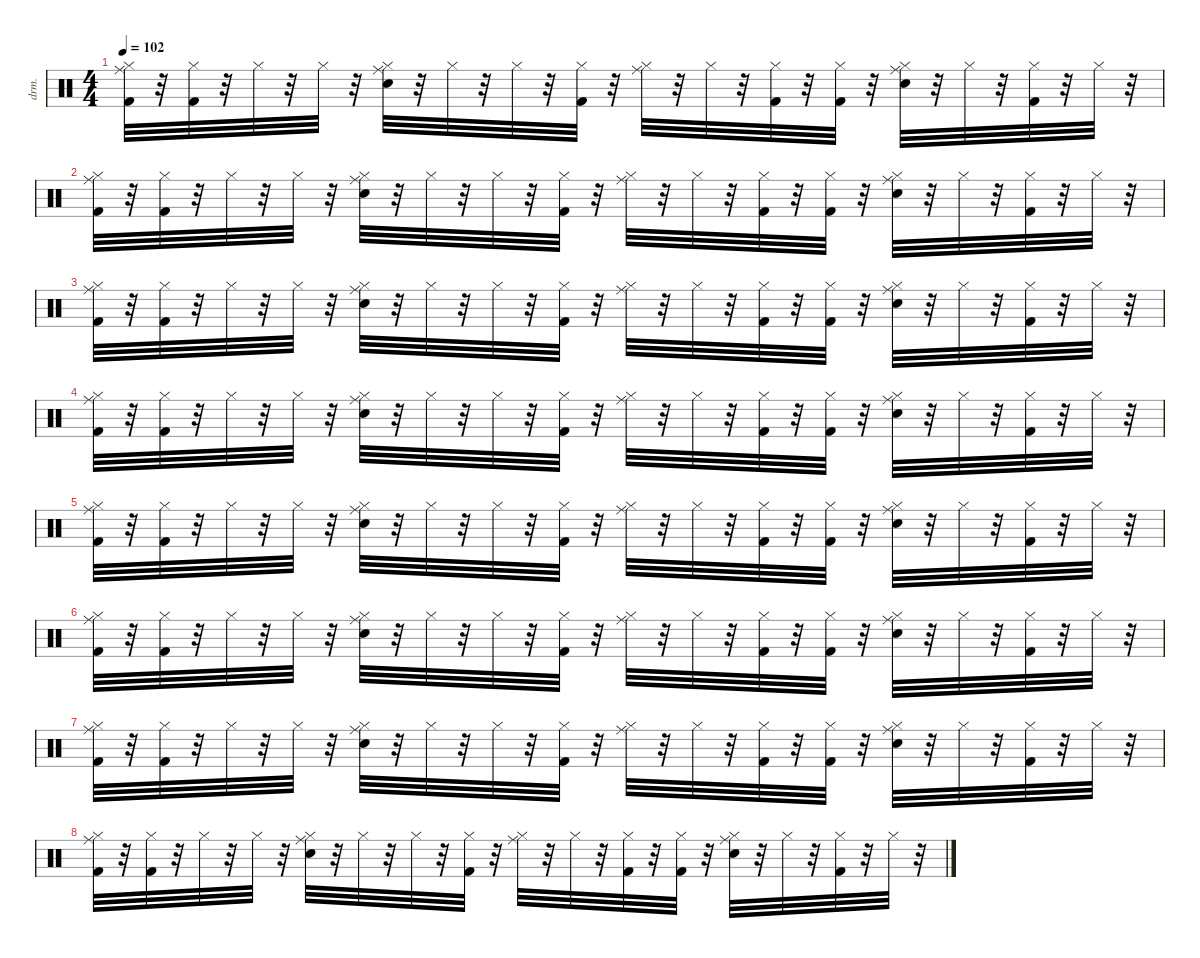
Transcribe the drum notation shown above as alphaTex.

\defaultSystemsLayout 4
\hideDynamics
\bracketExtendMode nobrackets
\otherSystemsTrackNameOrientation horizontal
\track ("Nick Mason / Gary Wallis" "drm.") {instrument percussion}
\staff {score}
\articulation defaults
\ts (4 4)
\tempo 102
\clef neutral
\ks c
("Kick (hit) 2" "Hi-Hat (closed)" "Ride (middle)").32{dy ff beam Down} r.32{beam Down} ("Hi-Hat (closed)" "Kick (hit) 2").32{dy pp beam Down} r.32{beam Down} "Hi-Hat (closed)".32{dy ppp beam Down} r.32{beam Down} "Hi-Hat (closed)".32{dy p beam Down} r.32{beam Down} ("Snare (hit) 2" "Hi-Hat (closed)" "Ride (middle)").32{beam Down} r.32{beam Down} "Hi-Hat (closed)".32{dy ppp beam Down} r.32{beam Down} "Hi-Hat (closed)".32{dy mp beam Down} r.32{beam Down} ("Hi-Hat (closed)" "Kick (hit) 2").32{dy ppp beam Down} r.32{beam Down} ("Hi-Hat (closed)" "Ride (middle)").32{dy mf beam Down} r.32{beam Down} "Hi-Hat (closed)".32{dy pp beam Down} r.32{beam Down} ("Hi-Hat (closed)" "Kick (hit) 2").32{dy ppp beam Down} r.32{beam Down} ("Hi-Hat (closed)" "Kick (hit) 2").32{dy p beam Down} r.32{beam Down} ("Snare (hit) 2" "Hi-Hat (closed)" "Ride (middle)").32{beam Down} r.32{beam Down} "Hi-Hat (closed)".32{dy ppp beam Down} r.32{beam Down} ("Kick (hit) 2" "Hi-Hat (closed)").32{dy f beam Down} r.32{beam Down} "Hi-Hat (closed)".32{dy p beam Down} r.32{beam Down} |
("Kick (hit) 2" "Hi-Hat (closed)" "Ride (middle)").32{dy ff beam Down} r.32{beam Down} ("Hi-Hat (closed)" "Kick (hit) 2").32{dy pp beam Down} r.32{beam Down} "Hi-Hat (closed)".32{dy ppp beam Down} r.32{beam Down} "Hi-Hat (closed)".32{dy p beam Down} r.32{beam Down} ("Snare (hit) 2" "Hi-Hat (closed)" "Ride (middle)").32{beam Down} r.32{beam Down} "Hi-Hat (closed)".32{dy ppp beam Down} r.32{beam Down} "Hi-Hat (closed)".32{dy mp beam Down} r.32{beam Down} ("Hi-Hat (closed)" "Kick (hit) 2").32{dy ppp beam Down} r.32{beam Down} ("Hi-Hat (closed)" "Ride (middle)").32{dy mf beam Down} r.32{beam Down} "Hi-Hat (closed)".32{dy pp beam Down} r.32{beam Down} ("Hi-Hat (closed)" "Kick (hit) 2").32{dy ppp beam Down} r.32{beam Down} ("Hi-Hat (closed)" "Kick (hit) 2").32{dy p beam Down} r.32{beam Down} ("Snare (hit) 2" "Hi-Hat (closed)" "Ride (middle)").32{beam Down} r.32{beam Down} "Hi-Hat (closed)".32{dy ppp beam Down} r.32{beam Down} ("Kick (hit) 2" "Hi-Hat (closed)").32{dy f beam Down} r.32{beam Down} "Hi-Hat (closed)".32{dy p beam Down} r.32{beam Down} |
("Kick (hit) 2" "Hi-Hat (closed)" "Ride (middle)").32{dy ff beam Down} r.32{beam Down} ("Hi-Hat (closed)" "Kick (hit) 2").32{dy pp beam Down} r.32{beam Down} "Hi-Hat (closed)".32{dy ppp beam Down} r.32{beam Down} "Hi-Hat (closed)".32{dy p beam Down} r.32{beam Down} ("Snare (hit) 2" "Hi-Hat (closed)" "Ride (middle)").32{beam Down} r.32{beam Down} "Hi-Hat (closed)".32{dy ppp beam Down} r.32{beam Down} "Hi-Hat (closed)".32{dy mp beam Down} r.32{beam Down} ("Hi-Hat (closed)" "Kick (hit) 2").32{dy ppp beam Down} r.32{beam Down} ("Hi-Hat (closed)" "Ride (middle)").32{dy mf beam Down} r.32{beam Down} "Hi-Hat (closed)".32{dy pp beam Down} r.32{beam Down} ("Hi-Hat (closed)" "Kick (hit) 2").32{dy ppp beam Down} r.32{beam Down} ("Hi-Hat (closed)" "Kick (hit) 2").32{dy p beam Down} r.32{beam Down} ("Snare (hit) 2" "Hi-Hat (closed)" "Ride (middle)").32{beam Down} r.32{beam Down} "Hi-Hat (closed)".32{dy ppp beam Down} r.32{beam Down} ("Kick (hit) 2" "Hi-Hat (closed)").32{dy f beam Down} r.32{beam Down} "Hi-Hat (closed)".32{dy p beam Down} r.32{beam Down} |
("Kick (hit) 2" "Hi-Hat (closed)" "Ride (middle)").32{dy ff beam Down} r.32{beam Down} ("Hi-Hat (closed)" "Kick (hit) 2").32{dy pp beam Down} r.32{beam Down} "Hi-Hat (closed)".32{dy ppp beam Down} r.32{beam Down} "Hi-Hat (closed)".32{dy p beam Down} r.32{beam Down} ("Snare (hit) 2" "Hi-Hat (closed)" "Ride (middle)").32{beam Down} r.32{beam Down} "Hi-Hat (closed)".32{dy ppp beam Down} r.32{beam Down} "Hi-Hat (closed)".32{dy mp beam Down} r.32{beam Down} ("Hi-Hat (closed)" "Kick (hit) 2").32{dy ppp beam Down} r.32{beam Down} ("Hi-Hat (closed)" "Ride (middle)").32{dy mf beam Down} r.32{beam Down} "Hi-Hat (closed)".32{dy pp beam Down} r.32{beam Down} ("Hi-Hat (closed)" "Kick (hit) 2").32{dy ppp beam Down} r.32{beam Down} ("Hi-Hat (closed)" "Kick (hit) 2").32{dy p beam Down} r.32{beam Down} ("Snare (hit) 2" "Hi-Hat (closed)" "Ride (middle)").32{beam Down} r.32{beam Down} "Hi-Hat (closed)".32{dy ppp beam Down} r.32{beam Down} ("Kick (hit) 2" "Hi-Hat (closed)").32{dy f beam Down} r.32{beam Down} "Hi-Hat (closed)".32{dy p beam Down} r.32{beam Down} |
("Kick (hit) 2" "Hi-Hat (closed)" "Ride (middle)").32{dy ff beam Down} r.32{beam Down} ("Hi-Hat (closed)" "Kick (hit) 2").32{dy pp beam Down} r.32{beam Down} "Hi-Hat (closed)".32{dy ppp beam Down} r.32{beam Down} "Hi-Hat (closed)".32{dy p beam Down} r.32{beam Down} ("Snare (hit) 2" "Hi-Hat (closed)" "Ride (middle)").32{beam Down} r.32{beam Down} "Hi-Hat (closed)".32{dy ppp beam Down} r.32{beam Down} "Hi-Hat (closed)".32{dy mp beam Down} r.32{beam Down} ("Hi-Hat (closed)" "Kick (hit) 2").32{dy ppp beam Down} r.32{beam Down} ("Hi-Hat (closed)" "Ride (middle)").32{dy mf beam Down} r.32{beam Down} "Hi-Hat (closed)".32{dy pp beam Down} r.32{beam Down} ("Hi-Hat (closed)" "Kick (hit) 2").32{dy ppp beam Down} r.32{beam Down} ("Hi-Hat (closed)" "Kick (hit) 2").32{dy p beam Down} r.32{beam Down} ("Snare (hit) 2" "Hi-Hat (closed)" "Ride (middle)").32{beam Down} r.32{beam Down} "Hi-Hat (closed)".32{dy ppp beam Down} r.32{beam Down} ("Kick (hit) 2" "Hi-Hat (closed)").32{dy f beam Down} r.32{beam Down} "Hi-Hat (closed)".32{dy p beam Down} r.32{beam Down} |
("Kick (hit) 2" "Hi-Hat (closed)" "Ride (middle)").32{dy ff beam Down} r.32{beam Down} ("Hi-Hat (closed)" "Kick (hit) 2").32{dy pp beam Down} r.32{beam Down} "Hi-Hat (closed)".32{dy ppp beam Down} r.32{beam Down} "Hi-Hat (closed)".32{dy p beam Down} r.32{beam Down} ("Snare (hit) 2" "Hi-Hat (closed)" "Ride (middle)").32{beam Down} r.32{beam Down} "Hi-Hat (closed)".32{dy ppp beam Down} r.32{beam Down} "Hi-Hat (closed)".32{dy mp beam Down} r.32{beam Down} ("Hi-Hat (closed)" "Kick (hit) 2").32{dy ppp beam Down} r.32{beam Down} ("Hi-Hat (closed)" "Ride (middle)").32{dy mf beam Down} r.32{beam Down} "Hi-Hat (closed)".32{dy pp beam Down} r.32{beam Down} ("Hi-Hat (closed)" "Kick (hit) 2").32{dy ppp beam Down} r.32{beam Down} ("Hi-Hat (closed)" "Kick (hit) 2").32{dy p beam Down} r.32{beam Down} ("Snare (hit) 2" "Hi-Hat (closed)" "Ride (middle)").32{beam Down} r.32{beam Down} "Hi-Hat (closed)".32{dy ppp beam Down} r.32{beam Down} ("Kick (hit) 2" "Hi-Hat (closed)").32{dy f beam Down} r.32{beam Down} "Hi-Hat (closed)".32{dy p beam Down} r.32{beam Down} |
("Kick (hit) 2" "Hi-Hat (closed)" "Ride (middle)").32{dy ff beam Down} r.32{beam Down} ("Hi-Hat (closed)" "Kick (hit) 2").32{dy pp beam Down} r.32{beam Down} "Hi-Hat (closed)".32{dy ppp beam Down} r.32{beam Down} "Hi-Hat (closed)".32{dy p beam Down} r.32{beam Down} ("Snare (hit) 2" "Hi-Hat (closed)" "Ride (middle)").32{beam Down} r.32{beam Down} "Hi-Hat (closed)".32{dy ppp beam Down} r.32{beam Down} "Hi-Hat (closed)".32{dy mp beam Down} r.32{beam Down} ("Hi-Hat (closed)" "Kick (hit) 2").32{dy ppp beam Down} r.32{beam Down} ("Hi-Hat (closed)" "Ride (middle)").32{dy mf beam Down} r.32{beam Down} "Hi-Hat (closed)".32{dy pp beam Down} r.32{beam Down} ("Hi-Hat (closed)" "Kick (hit) 2").32{dy ppp beam Down} r.32{beam Down} ("Hi-Hat (closed)" "Kick (hit) 2").32{dy p beam Down} r.32{beam Down} ("Snare (hit) 2" "Hi-Hat (closed)" "Ride (middle)").32{beam Down} r.32{beam Down} "Hi-Hat (closed)".32{dy ppp beam Down} r.32{beam Down} ("Kick (hit) 2" "Hi-Hat (closed)").32{dy f beam Down} r.32{beam Down} "Hi-Hat (closed)".32{dy p beam Down} r.32{beam Down} |
("Kick (hit) 2" "Hi-Hat (closed)" "Ride (middle)").32{dy ff beam Down} r.32{beam Down} ("Hi-Hat (closed)" "Kick (hit) 2").32{dy pp beam Down} r.32{beam Down} "Hi-Hat (closed)".32{dy ppp beam Down} r.32{beam Down} "Hi-Hat (closed)".32{dy p beam Down} r.32{beam Down} ("Snare (hit) 2" "Hi-Hat (closed)" "Ride (middle)").32{beam Down} r.32{beam Down} "Hi-Hat (closed)".32{dy ppp beam Down} r.32{beam Down} "Hi-Hat (closed)".32{dy mp beam Down} r.32{beam Down} ("Hi-Hat (closed)" "Kick (hit) 2").32{dy ppp beam Down} r.32{beam Down} ("Hi-Hat (closed)" "Ride (middle)").32{dy mf beam Down} r.32{beam Down} "Hi-Hat (closed)".32{dy pp beam Down} r.32{beam Down} ("Hi-Hat (closed)" "Kick (hit) 2").32{dy ppp beam Down} r.32{beam Down} ("Hi-Hat (closed)" "Kick (hit) 2").32{dy p beam Down} r.32{beam Down} ("Snare (hit) 2" "Hi-Hat (closed)" "Ride (middle)").32{beam Down} r.32{beam Down} "Hi-Hat (closed)".32{dy ppp beam Down} r.32{beam Down} ("Kick (hit) 2" "Hi-Hat (closed)").32{dy f beam Down} r.32{beam Down} "Hi-Hat (closed)".32{dy p beam Down} r.32{beam Down}
